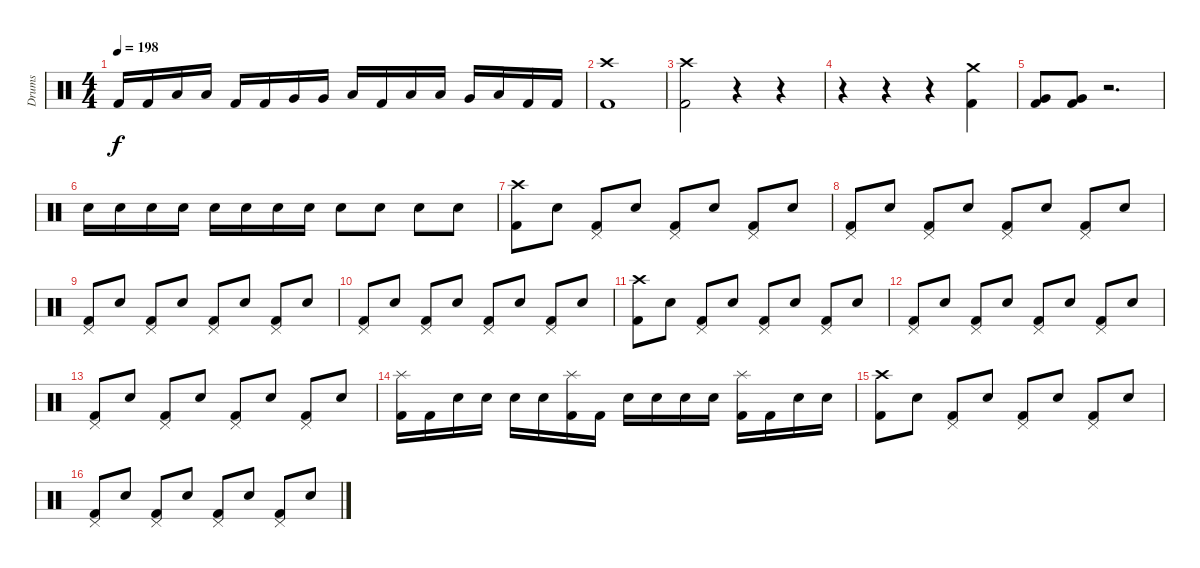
\track ("Drums" "Drums") {instrument percussion}
\staff {score}
\articulation defaults
\ts (4 4)
\tempo 198
\clef neutral
\ks c "Kick (hit) 2".16{dy f} "Kick (hit) 2".16 "Low Tom (hit)".16 "Low Tom (hit)".16 "Kick (hit) 2".16 "Kick (hit) 2".16 "Very Low Tom (hit)".16 "Very Low Tom (hit)".16 "Low Floor Tom (hit)".16 "Kick (hit) 2".16 "Low Tom (hit)".16 "Low Tom (hit)".16 "Very Low Tom (hit)".16 "Low Floor Tom (hit)".16 "Kick (hit) 2".16 "Kick (hit) 2".16
|
("Crash high (hit)" "Kick (hit) 2").1 |
("Crash high (hit)" "Kick (hit) 2").2 r.4 r.4 |
r.4 r.4 r.4 ("Crash medium (hit)" "Kick (hit) 2").4 |
("Very Low Tom (hit)" "Kick (hit) 2").8 ("Very Low Tom (hit)" "Kick (hit) 2").8 r.2{d} |
"Electric Snare (hit)".16 "Electric Snare (hit)".16 "Electric Snare (hit)".16 "Electric Snare (hit)".16 "Electric Snare (hit)".16 "Electric Snare (hit)".16 "Electric Snare (hit)".16 "Electric Snare (hit)".16 "Electric Snare (hit)".8 "Electric Snare (hit)".8 "Electric Snare (hit)".8 "Electric Snare (hit)".8 |
("Crash high (hit)" "Kick (hit) 2").8 "Electric Snare (hit)".8 ("Pedal Hi-Hat (hit)" "Kick (hit) 2").8 "Electric Snare (hit)".8 ("Pedal Hi-Hat (hit)" "Kick (hit) 2").8 "Electric Snare (hit)".8 ("Pedal Hi-Hat (hit)" "Kick (hit) 2").8 "Electric Snare (hit)".8 |
("Pedal Hi-Hat (hit)" "Kick (hit) 2").8 "Electric Snare (hit)".8 ("Pedal Hi-Hat (hit)" "Kick (hit) 2").8 "Electric Snare (hit)".8 ("Pedal Hi-Hat (hit)" "Kick (hit) 2").8 "Electric Snare (hit)".8 ("Pedal Hi-Hat (hit)" "Kick (hit) 2").8 "Electric Snare (hit)".8 |
("Pedal Hi-Hat (hit)" "Kick (hit) 2").8 "Electric Snare (hit)".8 ("Pedal Hi-Hat (hit)" "Kick (hit) 2").8 "Electric Snare (hit)".8 ("Pedal Hi-Hat (hit)" "Kick (hit) 2").8 "Electric Snare (hit)".8 ("Pedal Hi-Hat (hit)" "Kick (hit) 2").8 "Electric Snare (hit)".8 |
("Pedal Hi-Hat (hit)" "Kick (hit) 2").8 "Electric Snare (hit)".8 ("Pedal Hi-Hat (hit)" "Kick (hit) 2").8 "Electric Snare (hit)".8 ("Pedal Hi-Hat (hit)" "Kick (hit) 2").8 "Electric Snare (hit)".8 ("Pedal Hi-Hat (hit)" "Kick (hit) 2").8 "Electric Snare (hit)".8 |
("Crash high (hit)" "Kick (hit) 2").8 "Electric Snare (hit)".8 ("Pedal Hi-Hat (hit)" "Kick (hit) 2").8 "Electric Snare (hit)".8 ("Pedal Hi-Hat (hit)" "Kick (hit) 2").8 "Electric Snare (hit)".8 ("Pedal Hi-Hat (hit)" "Kick (hit) 2").8 "Electric Snare (hit)".8 |
("Pedal Hi-Hat (hit)" "Kick (hit) 2").8 "Electric Snare (hit)".8 ("Pedal Hi-Hat (hit)" "Kick (hit) 2").8 "Electric Snare (hit)".8 ("Pedal Hi-Hat (hit)" "Kick (hit) 2").8 "Electric Snare (hit)".8 ("Pedal Hi-Hat (hit)" "Kick (hit) 2").8 "Electric Snare (hit)".8 |
("Pedal Hi-Hat (hit)" "Kick (hit) 2").8 "Electric Snare (hit)".8 ("Pedal Hi-Hat (hit)" "Kick (hit) 2").8 "Electric Snare (hit)".8 ("Pedal Hi-Hat (hit)" "Kick (hit) 2").8 "Electric Snare (hit)".8 ("Pedal Hi-Hat (hit)" "Kick (hit) 2").8 "Electric Snare (hit)".8 |
("Splash (hit)" "Kick (hit) 2").16 "Kick (hit) 2".16 "Electric Snare (hit)".16 "Electric Snare (hit)".16 "Electric Snare (hit)".16 "Electric Snare (hit)".16 ("Splash (hit)" "Kick (hit) 2").16 "Kick (hit) 2".16 "Electric Snare (hit)".16 "Electric Snare (hit)".16 "Electric Snare (hit)".16 "Electric Snare (hit)".16 ("Splash (hit)" "Kick (hit) 2").16 "Kick (hit) 2".16 "Electric Snare (hit)".16 "Electric Snare (hit)".16 |
("Crash high (hit)" "Kick (hit) 2").8 "Electric Snare (hit)".8 ("Pedal Hi-Hat (hit)" "Kick (hit) 2").8 "Electric Snare (hit)".8 ("Pedal Hi-Hat (hit)" "Kick (hit) 2").8 "Electric Snare (hit)".8 ("Pedal Hi-Hat (hit)" "Kick (hit) 2").8 "Electric Snare (hit)".8 |
("Pedal Hi-Hat (hit)" "Kick (hit) 2").8 "Electric Snare (hit)".8 ("Pedal Hi-Hat (hit)" "Kick (hit) 2").8 "Electric Snare (hit)".8 ("Pedal Hi-Hat (hit)" "Kick (hit) 2").8 "Electric Snare (hit)".8 ("Pedal Hi-Hat (hit)" "Kick (hit) 2").8 "Electric Snare (hit)".8
